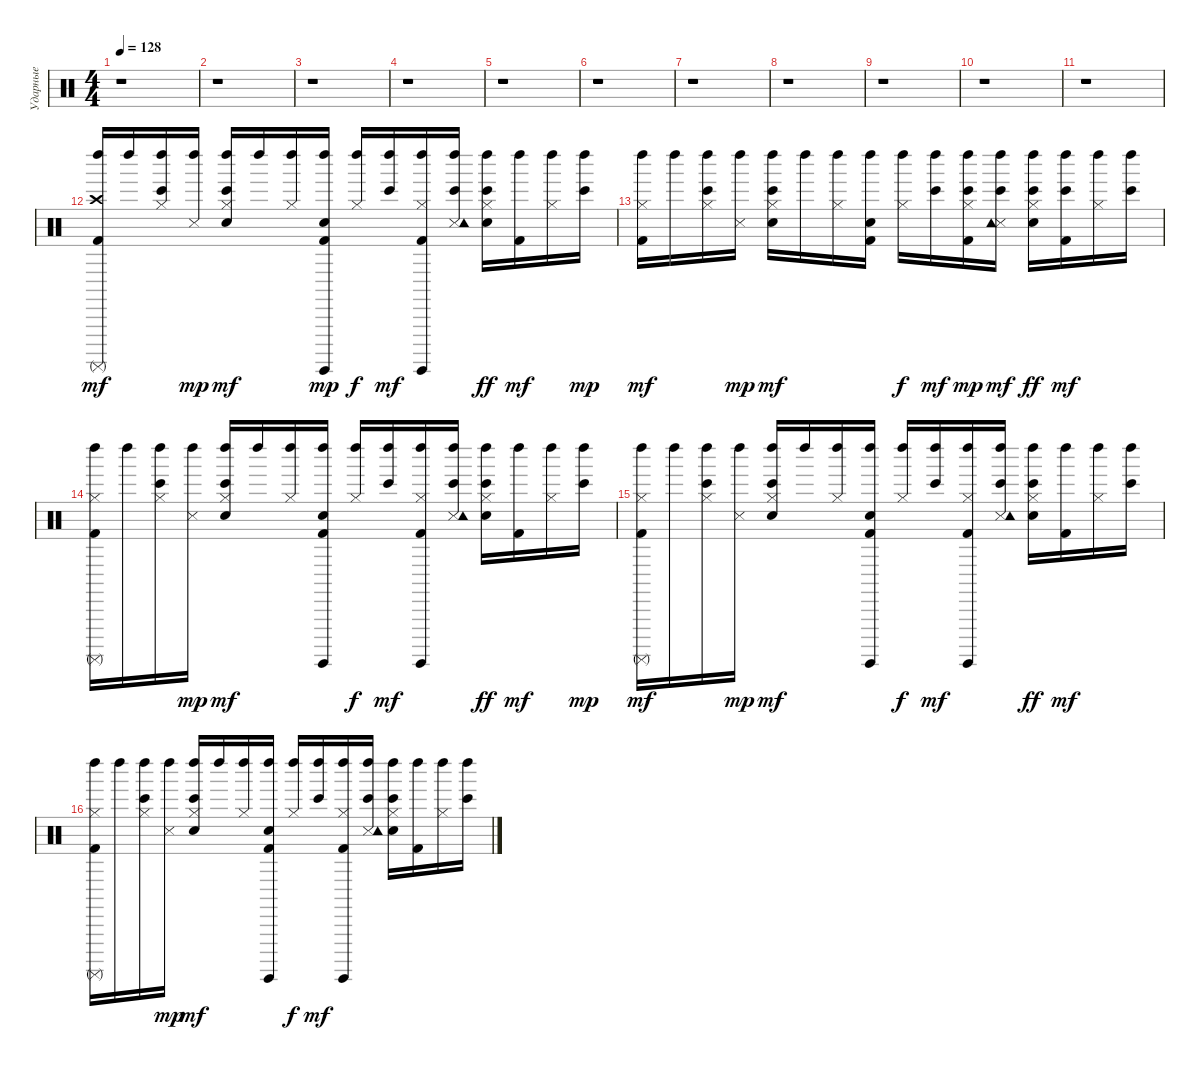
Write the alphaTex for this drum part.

\track ("Ударные" "Ударные") {instrument percussion}
\staff {score}
\articulation defaults
\ts (4 4)
\tempo 128
\clef neutral
\ks c
r.1{dy pp} |
r.1 |
r.1 |
r.1 |
r.1 |
r.1 |
r.1 |
r.1 |
r.1 |
r.1 |
r.1 |
("Kick (hit) 2" "Crash high (hit)" "Left Maraca (hit)" "Surdo (mute)").16{dy mf} "Left Maraca (hit)".16 ("Bongo High (hit)" "Hi-Hat (closed)" "Left Maraca (hit)").16 ("Snare (side stick) 3" "Left Maraca (hit)").16{dy mp} ("Bongo High (hit)" "Electric Snare (hit)" "Hi-Hat (closed)" "Left Maraca (hit)").16{dy mf} "Left Maraca (hit)".16 ("Hi-Hat (closed)" "Left Maraca (hit)").16 ("Kick (hit) 2" "Electric Snare (hit)" "Left Maraca (hit)" "Surdo (hit)").16{dy mp} ("Hi-Hat (closed)" "Left Maraca (hit)").16{dy f} ("Bongo High (hit)" "Left Maraca (hit)").16{dy mf} ("Kick (hit) 2" "Hi-Hat (closed)" "Left Maraca (hit)" "Surdo (hit)").16 ("Bongo High (hit)" "Snare (side stick) 3" "Tambourine (hit)" "Left Maraca (hit)").16 ("Bongo High (hit)" "Electric Snare (hit)" "Hi-Hat (closed)" "Left Maraca (hit)").16{dy ff} ("Kick (hit) 2" "Left Maraca (hit)").16{dy mf} ("Hi-Hat (closed)" "Left Maraca (hit)").16 ("Bongo High (hit)" "Left Maraca (hit)").16{dy mp} |
("Kick (hit) 2" "Hi-Hat (closed)" "Left Maraca (hit)").16{dy mf} "Left Maraca (hit)".16 ("Bongo High (hit)" "Hi-Hat (closed)" "Left Maraca (hit)").16 ("Snare (side stick) 3" "Left Maraca (hit)").16{dy mp} ("Bongo High (hit)" "Electric Snare (hit)" "Hi-Hat (closed)" "Left Maraca (hit)").16{dy mf} "Left Maraca (hit)".16 ("Hi-Hat (closed)" "Left Maraca (hit)").16 ("Kick (hit) 2" "Electric Snare (hit)" "Left Maraca (hit)").16 ("Hi-Hat (closed)" "Left Maraca (hit)").16{dy f} ("Bongo High (hit)" "Left Maraca (hit)").16{dy mf} ("Bongo High (hit)" "Kick (hit) 2" "Hi-Hat (closed)" "Left Maraca (hit)").16{dy mp} ("Bongo High (hit)" "Snare (side stick) 3" "Tambourine (hit)" "Left Maraca (hit)").16{dy mf} ("Bongo High (hit)" "Electric Snare (hit)" "Hi-Hat (closed)" "Left Maraca (hit)").16{dy ff} ("Bongo High (hit)" "Kick (hit) 2" "Left Maraca (hit)").16{dy mf} ("Hi-Hat (closed)" "Left Maraca (hit)").16 ("Bongo High (hit)" "Left Maraca (hit)").16 |
("Kick (hit) 2" "Hi-Hat (closed)" "Left Maraca (hit)" "Surdo (mute)").16 "Left Maraca (hit)".16 ("Bongo High (hit)" "Hi-Hat (closed)" "Left Maraca (hit)").16 ("Snare (side stick) 3" "Left Maraca (hit)").16{dy mp} ("Bongo High (hit)" "Electric Snare (hit)" "Hi-Hat (closed)" "Left Maraca (hit)").16{dy mf} "Left Maraca (hit)".16 ("Hi-Hat (closed)" "Left Maraca (hit)").16 ("Kick (hit) 2" "Electric Snare (hit)" "Left Maraca (hit)" "Surdo (hit)").16 ("Hi-Hat (closed)" "Left Maraca (hit)").16{dy f} ("Bongo High (hit)" "Left Maraca (hit)").16{dy mf} ("Kick (hit) 2" "Hi-Hat (closed)" "Left Maraca (hit)" "Surdo (hit)").16 ("Bongo High (hit)" "Snare (side stick) 3" "Tambourine (hit)" "Left Maraca (hit)").16 ("Bongo High (hit)" "Electric Snare (hit)" "Hi-Hat (closed)" "Left Maraca (hit)").16{dy ff} ("Kick (hit) 2" "Left Maraca (hit)").16{dy mf} ("Hi-Hat (closed)" "Left Maraca (hit)").16 ("Bongo High (hit)" "Left Maraca (hit)").16{dy mp} |
("Kick (hit) 2" "Hi-Hat (closed)" "Left Maraca (hit)" "Surdo (mute)").16{dy mf} "Left Maraca (hit)".16 ("Bongo High (hit)" "Hi-Hat (closed)" "Left Maraca (hit)").16 ("Snare (side stick) 3" "Left Maraca (hit)").16{dy mp} ("Bongo High (hit)" "Electric Snare (hit)" "Hi-Hat (closed)" "Left Maraca (hit)").16{dy mf} "Left Maraca (hit)".16 ("Hi-Hat (closed)" "Left Maraca (hit)").16 ("Kick (hit) 2" "Electric Snare (hit)" "Left Maraca (hit)" "Surdo (hit)").16 ("Hi-Hat (closed)" "Left Maraca (hit)").16{dy f} ("Bongo High (hit)" "Left Maraca (hit)").16{dy mf} ("Kick (hit) 2" "Hi-Hat (closed)" "Left Maraca (hit)" "Surdo (hit)").16 ("Bongo High (hit)" "Snare (side stick) 3" "Tambourine (hit)" "Left Maraca (hit)").16 ("Bongo High (hit)" "Electric Snare (hit)" "Hi-Hat (closed)" "Left Maraca (hit)").16{dy ff} ("Kick (hit) 2" "Left Maraca (hit)").16{dy mf} ("Hi-Hat (closed)" "Left Maraca (hit)").16 ("Bongo High (hit)" "Left Maraca (hit)").16 |
("Kick (hit) 2" "Hi-Hat (closed)" "Left Maraca (hit)" "Surdo (mute)").16 "Left Maraca (hit)".16 ("Bongo High (hit)" "Hi-Hat (closed)" "Left Maraca (hit)").16 ("Snare (side stick) 3" "Left Maraca (hit)").16{dy mp} ("Bongo High (hit)" "Electric Snare (hit)" "Hi-Hat (closed)" "Left Maraca (hit)").16{dy mf} "Left Maraca (hit)".16 ("Hi-Hat (closed)" "Left Maraca (hit)").16 ("Kick (hit) 2" "Electric Snare (hit)" "Left Maraca (hit)" "Surdo (hit)").16 ("Hi-Hat (closed)" "Left Maraca (hit)").16{dy f} ("Bongo High (hit)" "Left Maraca (hit)").16{dy mf} ("Kick (hit) 2" "Hi-Hat (closed)" "Left Maraca (hit)" "Surdo (hit)").16 ("Bongo High (hit)" "Snare (side stick) 3" "Tambourine (hit)" "Left Maraca (hit)").16 ("Bongo High (hit)" "Electric Snare (hit)" "Hi-Hat (closed)" "Left Maraca (hit)").16 ("Kick (hit) 2" "Left Maraca (hit)").16 ("Hi-Hat (closed)" "Left Maraca (hit)").16 ("Bongo High (hit)" "Left Maraca (hit)").16
